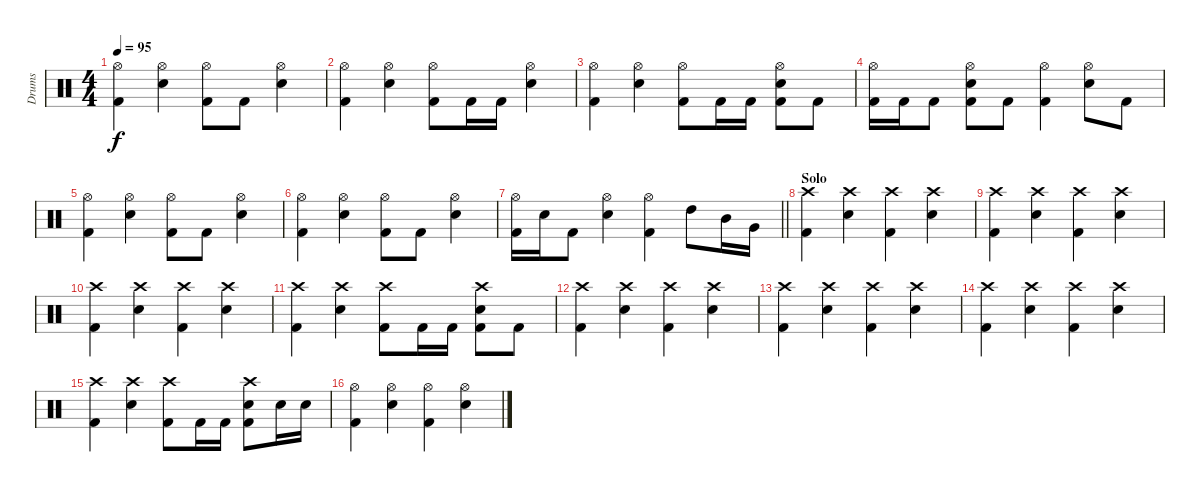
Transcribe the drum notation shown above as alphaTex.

\track ("Drums" "Drums") {instrument percussion}
\staff {score}
\articulation defaults
\ts (4 4)
\tempo 95
\clef neutral
\ks c
("Hi-Hat (open)" "Kick (hit) 2").4{dy f} ("Hi-Hat (open)" "Electric Snare (hit)").4 ("Hi-Hat (open)" "Kick (hit) 2").8 "Kick (hit) 2".8 ("Hi-Hat (open)" "Electric Snare (hit)").4 |
("Hi-Hat (open)" "Kick (hit) 2").4 ("Hi-Hat (open)" "Electric Snare (hit)").4 ("Hi-Hat (open)" "Kick (hit) 2").8 "Kick (hit) 2".16 "Kick (hit) 2".16 ("Hi-Hat (open)" "Electric Snare (hit)").4 |
("Hi-Hat (open)" "Kick (hit) 2").4 ("Hi-Hat (open)" "Electric Snare (hit)").4 ("Hi-Hat (open)" "Kick (hit) 2").8 "Kick (hit) 2".16 "Kick (hit) 2".16 ("Hi-Hat (open)" "Electric Snare (hit)" "Kick (hit) 2").8 "Kick (hit) 2".8 |
("Hi-Hat (open)" "Kick (hit) 2").16 "Kick (hit) 2".16 "Kick (hit) 2".8 ("Hi-Hat (open)" "Electric Snare (hit)" "Kick (hit) 2").8 "Kick (hit) 2".8 ("Hi-Hat (open)" "Kick (hit) 2").4 ("Hi-Hat (open)" "Electric Snare (hit)").8 "Kick (hit) 2".8 |
("Hi-Hat (open)" "Kick (hit) 2").4 ("Hi-Hat (open)" "Electric Snare (hit)").4 ("Hi-Hat (open)" "Kick (hit) 2").8 "Kick (hit) 2".8 ("Hi-Hat (open)" "Electric Snare (hit)").4 |
("Hi-Hat (open)" "Kick (hit) 2").4 ("Hi-Hat (open)" "Electric Snare (hit)").4 ("Hi-Hat (open)" "Kick (hit) 2").8 "Kick (hit) 2".8 ("Hi-Hat (open)" "Electric Snare (hit)").4 |
\barLineRight lightlight
("Hi-Hat (open)" "Kick (hit) 2").16 "Electric Snare (hit)".16 "Kick (hit) 2".8 ("Hi-Hat (open)" "Electric Snare (hit)").4 ("Hi-Hat (open)" "Kick (hit) 2").4 "High Tom (hit)".8 "Mid Tom (hit)".16 "Very Low Tom (hit)".16 |
\section ("" "Solo")
("Crash high (hit)" "Kick (hit) 2").4 ("Crash high (hit)" "Electric Snare (hit)").4 ("Crash high (hit)" "Kick (hit) 2").4 ("Crash high (hit)" "Electric Snare (hit)").4 |
("Crash high (hit)" "Kick (hit) 2").4 ("Crash high (hit)" "Electric Snare (hit)").4 ("Crash high (hit)" "Kick (hit) 2").4 ("Crash high (hit)" "Electric Snare (hit)").4 |
("Crash high (hit)" "Kick (hit) 2").4 ("Crash high (hit)" "Electric Snare (hit)").4 ("Crash high (hit)" "Kick (hit) 2").4 ("Crash high (hit)" "Electric Snare (hit)").4 |
("Crash high (hit)" "Kick (hit) 2").4 ("Crash high (hit)" "Electric Snare (hit)").4 ("Crash high (hit)" "Kick (hit) 2").8 "Kick (hit) 2".16 "Kick (hit) 2".16 ("Crash high (hit)" "Electric Snare (hit)" "Kick (hit) 2").8 "Kick (hit) 2".8 |
("Crash high (hit)" "Kick (hit) 2").4 ("Crash high (hit)" "Electric Snare (hit)").4 ("Crash high (hit)" "Kick (hit) 2").4 ("Crash high (hit)" "Electric Snare (hit)").4 |
("Crash high (hit)" "Kick (hit) 2").4 ("Crash high (hit)" "Electric Snare (hit)").4 ("Crash high (hit)" "Kick (hit) 2").4 ("Crash high (hit)" "Electric Snare (hit)").4 |
("Crash high (hit)" "Kick (hit) 2").4 ("Crash high (hit)" "Electric Snare (hit)").4 ("Crash high (hit)" "Kick (hit) 2").4 ("Crash high (hit)" "Electric Snare (hit)").4 |
("Crash high (hit)" "Kick (hit) 2").4 ("Crash high (hit)" "Electric Snare (hit)").4 ("Crash high (hit)" "Kick (hit) 2").8 "Kick (hit) 2".16 "Kick (hit) 2".16 ("Crash high (hit)" "Electric Snare (hit)" "Kick (hit) 2").8 "Electric Snare (hit)".16 "Electric Snare (hit)".16 |
("Hi-Hat (open)" "Kick (hit) 2").4 ("Hi-Hat (open)" "Electric Snare (hit)").4 ("Hi-Hat (open)" "Kick (hit) 2").4 ("Hi-Hat (open)" "Electric Snare (hit)").4
